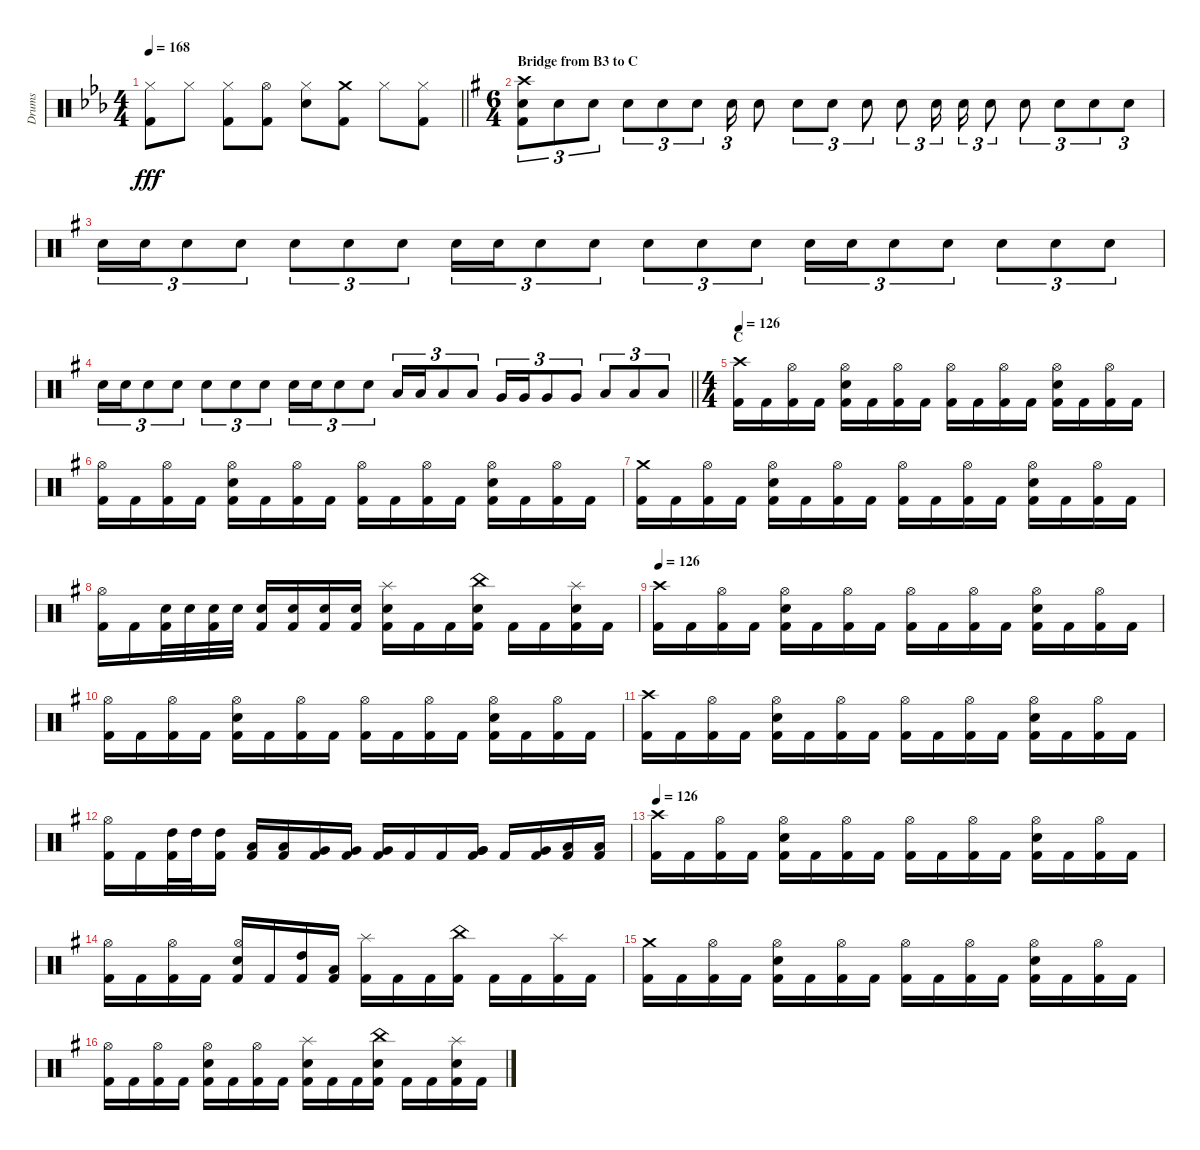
\track ("Drums" "Drums") {instrument percussion}
\staff {score}
\articulation defaults
\ts (4 4)
\tempo 168
\clef neutral
\barLineRight lightlight
\ks cminor
("Hi-Hat (closed)" "Kick (hit) 2").8{dy fff} "Hi-Hat (closed)".8 ("Hi-Hat (closed)" "Kick (hit) 2").8 ("Hi-Hat (open)" "Kick (hit) 2").8 ("Hi-Hat (closed)" "Snare (hit) 2").8 ("Crash medium (hit)" "Kick (hit) 2").8 "Hi-Hat (closed)".8 ("Hi-Hat (closed)" "Kick (hit) 2").8 |
\ts (6 4)
\section ("" "Bridge from B3 to C")
\ks eminor
("Crash high (hit)" "Snare (hit) 2" "Kick (hit) 2").8{tu (3 2) beam merge} "Snare (hit) 2".8{tu (3 2) beam merge} "Snare (hit) 2".8{tu (3 2) beam split} "Snare (hit) 2".8{tu (3 2) beam merge} "Snare (hit) 2".8{tu (3 2) beam merge} "Snare (hit) 2".8{tu (3 2) beam split} "Snare (hit) 2".16{tu (3 2) beam split} "Snare (hit) 2".8{beam split} "Snare (hit) 2".8{tu (3 2)} "Snare (hit) 2".8{tu (3 2) beam split} "Snare (hit) 2".8{tu (3 2) beam split} "Snare (hit) 2".8{tu (3 2) beam split} "Snare (hit) 2".16{tu (3 2) beam split} "Snare (hit) 2".16{tu (3 2) beam split} "Snare (hit) 2".8{tu (3 2) beam split} "Snare (hit) 2".8{tu (3 2) beam split} "Snare (hit) 2".8{tu (3 2) beam merge} "Snare (hit) 2".8{tu (3 2) beam merge} "Snare (hit) 2".8{tu (3 2)} |
"Snare (hit) 2".16{tu (3 2) beam merge} "Snare (hit) 2".16{tu (3 2) beam merge} "Snare (hit) 2".8{tu (3 2) beam merge} "Snare (hit) 2".8{tu (3 2) beam split} "Snare (hit) 2".8{tu (3 2) beam merge} "Snare (hit) 2".8{tu (3 2) beam merge} "Snare (hit) 2".8{tu (3 2) beam split} "Snare (hit) 2".16{tu (3 2) beam merge} "Snare (hit) 2".16{tu (3 2) beam merge} "Snare (hit) 2".8{tu (3 2) beam merge} "Snare (hit) 2".8{tu (3 2)} "Snare (hit) 2".8{tu (3 2) beam merge} "Snare (hit) 2".8{tu (3 2) beam merge} "Snare (hit) 2".8{tu (3 2) beam split} "Snare (hit) 2".16{tu (3 2) beam merge} "Snare (hit) 2".16{tu (3 2) beam merge} "Snare (hit) 2".8{tu (3 2) beam merge} "Snare (hit) 2".8{tu (3 2) beam split} "Snare (hit) 2".8{tu (3 2) beam merge} "Snare (hit) 2".8{tu (3 2) beam merge} "Snare (hit) 2".8{tu (3 2)} |
\barLineRight lightlight "Snare (hit) 2".16{tu (3 2) beam merge} "Snare (hit) 2".16{tu (3 2) beam merge} "Snare (hit) 2".8{tu (3 2) beam merge} "Snare (hit) 2".8{tu (3 2) beam split} "Snare (hit) 2".8{tu (3 2) beam merge} "Snare (hit) 2".8{tu (3 2) beam merge} "Snare (hit) 2".8{tu (3 2) beam split} "Snare (hit) 2".16{tu (3 2) beam merge} "Snare (hit) 2".16{tu (3 2) beam merge} "Snare (hit) 2".8{tu (3 2) beam merge} "Snare (hit) 2".8{tu (3 2)} "Low Tom (hit)".16{tu (3 2) beam merge} "Low Tom (hit)".16{tu (3 2) beam merge} "Low Tom (hit)".8{tu (3 2) beam merge} "Low Tom (hit)".8{tu (3 2) beam split} "Very Low Tom (hit)".16{tu (3 2) beam merge} "Very Low Tom (hit)".16{tu (3 2) beam merge} "Very Low Tom (hit)".8{tu (3 2) beam merge} "Very Low Tom (hit)".8{tu (3 2) beam split} "Low Floor Tom (hit)".8{tu (3 2) beam merge} "Low Floor Tom (hit)".8{tu (3 2) beam merge} "Low Floor Tom (hit)".8{tu (3 2)}
|
\ts (4 4)
\section ("" "C")
\tempo 126
("Crash high (hit)" "Kick (hit) 2").16 "Kick (hit) 2".16 ("Hi-Hat (open)" "Kick (hit) 2").16 "Kick (hit) 2".16 ("Snare (hit) 2" "Hi-Hat (open)" "Kick (hit) 2").16 "Kick (hit) 2".16 ("Hi-Hat (open)" "Kick (hit) 2").16 "Kick (hit) 2".16 ("Hi-Hat (open)" "Kick (hit) 2").16 "Kick (hit) 2".16 ("Hi-Hat (open)" "Kick (hit) 2").16 "Kick (hit) 2".16 ("Snare (hit) 2" "Hi-Hat (open)" "Kick (hit) 2").16 "Kick (hit) 2".16 ("Hi-Hat (open)" "Kick (hit) 2").16 "Kick (hit) 2".16 |
("Hi-Hat (open)" "Kick (hit) 2").16 "Kick (hit) 2".16 ("Hi-Hat (open)" "Kick (hit) 2").16 "Kick (hit) 2".16 ("Snare (hit) 2" "Hi-Hat (open)" "Kick (hit) 2").16 "Kick (hit) 2".16 ("Hi-Hat (open)" "Kick (hit) 2").16 "Kick (hit) 2".16 ("Hi-Hat (open)" "Kick (hit) 2").16 "Kick (hit) 2".16 ("Hi-Hat (open)" "Kick (hit) 2").16 "Kick (hit) 2".16 ("Snare (hit) 2" "Hi-Hat (open)" "Kick (hit) 2").16 "Kick (hit) 2".16 ("Hi-Hat (open)" "Kick (hit) 2").16 "Kick (hit) 2".16 |
("Crash medium (hit)" "Kick (hit) 2").16 "Kick (hit) 2".16 ("Hi-Hat (open)" "Kick (hit) 2").16 "Kick (hit) 2".16 ("Snare (hit) 2" "Hi-Hat (open)" "Kick (hit) 2").16 "Kick (hit) 2".16 ("Hi-Hat (open)" "Kick (hit) 2").16 "Kick (hit) 2".16 ("Hi-Hat (open)" "Kick (hit) 2").16 "Kick (hit) 2".16 ("Hi-Hat (open)" "Kick (hit) 2").16 "Kick (hit) 2".16 ("Snare (hit) 2" "Hi-Hat (open)" "Kick (hit) 2").16 "Kick (hit) 2".16 ("Hi-Hat (open)" "Kick (hit) 2").16 "Kick (hit) 2".16 |
("Hi-Hat (open)" "Kick (hit) 2").16 "Kick (hit) 2".16 ("Snare (hit) 2" "Kick (hit) 2").32 "Snare (hit) 2".32 ("Snare (hit) 2" "Kick (hit) 2").32 "Snare (hit) 2".32 ("Snare (hit) 2" "Kick (hit) 2").16 ("Snare (hit) 2" "Kick (hit) 2").16 ("Snare (hit) 2" "Kick (hit) 2").16 ("Snare (hit) 2" "Kick (hit) 2").16 ("Splash (hit)" "Snare (hit) 2" "Kick (hit) 2").16 "Kick (hit) 2".16 "Kick (hit) 2".16 ("China (hit)" "Snare (hit) 2" "Kick (hit) 2").16 "Kick (hit) 2".16 "Kick (hit) 2".16 ("Splash (hit)" "Snare (hit) 2" "Kick (hit) 2").16 "Kick (hit) 2".16 |
\tempo 126
("Crash high (hit)" "Kick (hit) 2").16 "Kick (hit) 2".16 ("Hi-Hat (open)" "Kick (hit) 2").16 "Kick (hit) 2".16 ("Snare (hit) 2" "Hi-Hat (open)" "Kick (hit) 2").16 "Kick (hit) 2".16 ("Hi-Hat (open)" "Kick (hit) 2").16 "Kick (hit) 2".16 ("Hi-Hat (open)" "Kick (hit) 2").16 "Kick (hit) 2".16 ("Hi-Hat (open)" "Kick (hit) 2").16 "Kick (hit) 2".16 ("Snare (hit) 2" "Hi-Hat (open)" "Kick (hit) 2").16 "Kick (hit) 2".16 ("Hi-Hat (open)" "Kick (hit) 2").16 "Kick (hit) 2".16 |
("Hi-Hat (open)" "Kick (hit) 2").16 "Kick (hit) 2".16 ("Hi-Hat (open)" "Kick (hit) 2").16 "Kick (hit) 2".16 ("Snare (hit) 2" "Hi-Hat (open)" "Kick (hit) 2").16 "Kick (hit) 2".16 ("Hi-Hat (open)" "Kick (hit) 2").16 "Kick (hit) 2".16 ("Hi-Hat (open)" "Kick (hit) 2").16 "Kick (hit) 2".16 ("Hi-Hat (open)" "Kick (hit) 2").16 "Kick (hit) 2".16 ("Snare (hit) 2" "Hi-Hat (open)" "Kick (hit) 2").16 "Kick (hit) 2".16 ("Hi-Hat (open)" "Kick (hit) 2").16 "Kick (hit) 2".16 |
("Crash high (hit)" "Kick (hit) 2").16 "Kick (hit) 2".16 ("Hi-Hat (open)" "Kick (hit) 2").16 "Kick (hit) 2".16 ("Snare (hit) 2" "Hi-Hat (open)" "Kick (hit) 2").16 "Kick (hit) 2".16 ("Hi-Hat (open)" "Kick (hit) 2").16 "Kick (hit) 2".16 ("Hi-Hat (open)" "Kick (hit) 2").16 "Kick (hit) 2".16 ("Hi-Hat (open)" "Kick (hit) 2").16 "Kick (hit) 2".16 ("Snare (hit) 2" "Hi-Hat (open)" "Kick (hit) 2").16 "Kick (hit) 2".16 ("Hi-Hat (open)" "Kick (hit) 2").16 "Kick (hit) 2".16 |
("Hi-Hat (open)" "Kick (hit) 2").16 "Kick (hit) 2".16 ("Kick (hit) 2" "High Tom (hit)").32 "High Tom (hit)".32 ("Kick (hit) 2" "High Tom (hit)").16 ("Kick (hit) 2" "Low Tom (hit)").16 ("Kick (hit) 2" "Low Tom (hit)").16 ("Kick (hit) 2" "Very Low Tom (hit)").16 ("Kick (hit) 2" "Very Low Tom (hit)").16 ("Kick (hit) 2" "Very Low Tom (hit)").16 "Kick (hit) 2".16 "Kick (hit) 2".16 ("Kick (hit) 2" "Very Low Tom (hit)" "Very Low Tom (hit)").16 "Kick (hit) 2".16 ("Kick (hit) 2" "Very Low Tom (hit)").16 ("Kick (hit) 2" "Low Floor Tom (hit)").16 ("Kick (hit) 2" "Low Floor Tom (hit)").16 |
\tempo 126
("Crash high (hit)" "Kick (hit) 2").16 "Kick (hit) 2".16 ("Hi-Hat (open)" "Kick (hit) 2").16 "Kick (hit) 2".16 ("Snare (hit) 2" "Hi-Hat (open)" "Kick (hit) 2").16 "Kick (hit) 2".16 ("Hi-Hat (open)" "Kick (hit) 2").16 "Kick (hit) 2".16 ("Hi-Hat (open)" "Kick (hit) 2").16 "Kick (hit) 2".16 ("Hi-Hat (open)" "Kick (hit) 2").16 "Kick (hit) 2".16 ("Snare (hit) 2" "Hi-Hat (open)" "Kick (hit) 2").16 "Kick (hit) 2".16 ("Hi-Hat (open)" "Kick (hit) 2").16 "Kick (hit) 2".16 |
("Hi-Hat (open)" "Kick (hit) 2").16 "Kick (hit) 2".16 ("Hi-Hat (open)" "Kick (hit) 2").16 "Kick (hit) 2".16 ("Snare (hit) 2" "Hi-Hat (open)" "Kick (hit) 2").16 "Kick (hit) 2".16 ("Kick (hit) 2" "High Tom (hit)").16 ("Kick (hit) 2" "Low Tom (hit)").16 ("Splash (hit)" "Kick (hit) 2").16 "Kick (hit) 2".16 "Kick (hit) 2".16 ("China (hit)" "Kick (hit) 2").16 "Kick (hit) 2".16 "Kick (hit) 2".16 ("Splash (hit)" "Kick (hit) 2").16 "Kick (hit) 2".16 |
("Crash medium (hit)" "Kick (hit) 2").16 "Kick (hit) 2".16 ("Hi-Hat (open)" "Kick (hit) 2").16 "Kick (hit) 2".16 ("Snare (hit) 2" "Hi-Hat (open)" "Kick (hit) 2").16 "Kick (hit) 2".16 ("Hi-Hat (open)" "Kick (hit) 2").16 "Kick (hit) 2".16 ("Hi-Hat (open)" "Kick (hit) 2").16 "Kick (hit) 2".16 ("Hi-Hat (open)" "Kick (hit) 2").16 "Kick (hit) 2".16 ("Snare (hit) 2" "Hi-Hat (open)" "Kick (hit) 2").16 "Kick (hit) 2".16 ("Hi-Hat (open)" "Kick (hit) 2").16 "Kick (hit) 2".16 |
("Hi-Hat (open)" "Kick (hit) 2").16 "Kick (hit) 2".16 ("Hi-Hat (open)" "Kick (hit) 2").16 "Kick (hit) 2".16 ("Snare (hit) 2" "Hi-Hat (open)" "Kick (hit) 2").16 "Kick (hit) 2".16 ("Hi-Hat (open)" "Kick (hit) 2").16 "Kick (hit) 2".16 ("Snare (hit) 2" "Splash (hit)" "Kick (hit) 2").16 "Kick (hit) 2".16 "Kick (hit) 2".16 ("Snare (hit) 2" "China (hit)" "Kick (hit) 2").16 "Kick (hit) 2".16 "Kick (hit) 2".16 ("Splash (hit)" "Snare (hit) 2" "Kick (hit) 2").16 "Kick (hit) 2".16
